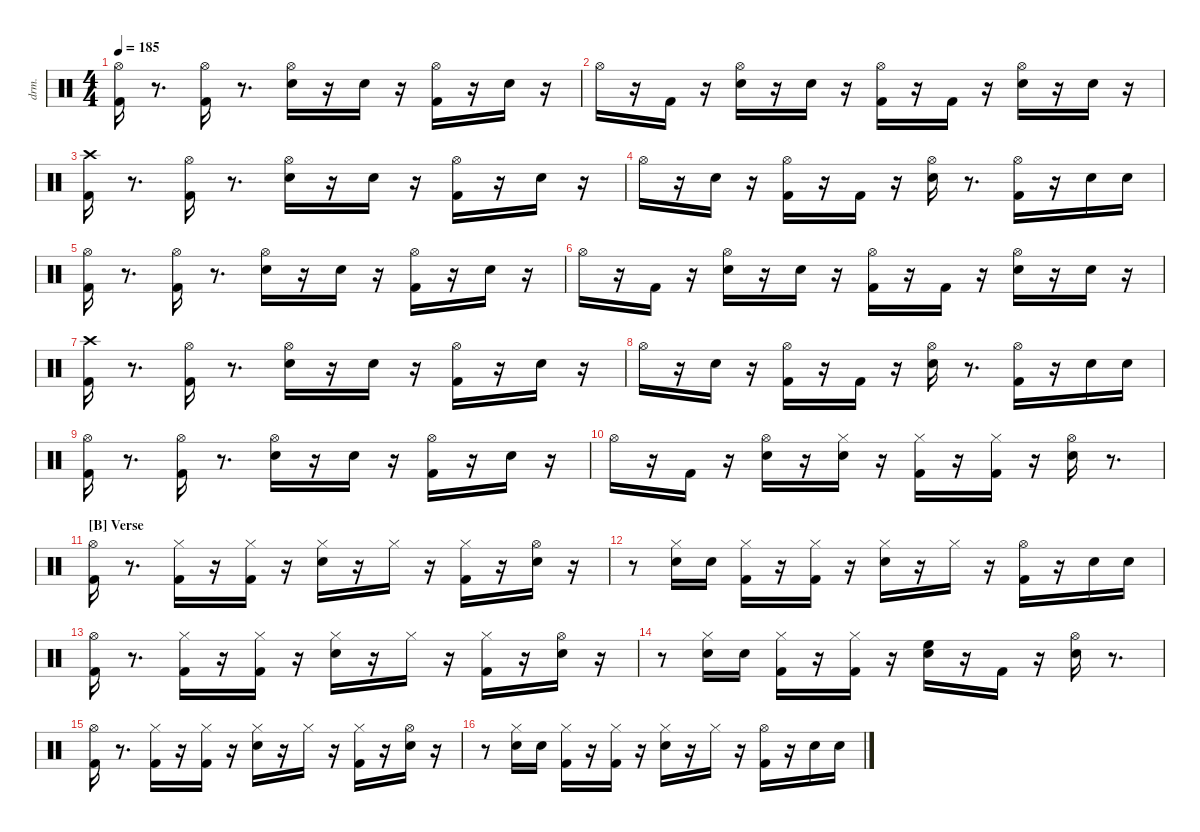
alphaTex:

\defaultSystemsLayout 4
\hideDynamics
\bracketExtendMode nobrackets
\otherSystemsTrackNameOrientation horizontal
\track ("drums" "drm.") {instrument percussion}
\staff {score}
\articulation defaults
\ts (4 4)
\tempo 185
\clef neutral
\ks aminor
("Kick (hit) 2" "Hi-Hat (open)"{acc #}).16{dy ff beam Down} r.8{d beam Down} ("Kick (hit) 2" "Hi-Hat (open)"{acc #}).16{dy mf beam Down} r.8{d beam Down} ("Snare (hit) 2" "Hi-Hat (open)"{acc #}).16{dy ff beam Down} r.16{beam Down} "Snare (hit) 2".16{dy p beam Down} r.16{beam Down} ("Kick (hit) 2" "Hi-Hat (open)"{acc #}).16{dy ff beam Down} r.16{beam Down} "Snare (hit) 2".16{dy f beam Down} r.16{beam Down} |
"Hi-Hat (open)"{acc #}.16{dy ff beam Down} r.16{beam Down} "Kick (hit) 2".16{beam Up} r.16{beam Up} ("Snare (hit) 2" "Hi-Hat (open)"{acc #}).16{beam Down} r.16{beam Down} "Snare (hit) 2".16{dy p beam Down} r.16{beam Down} ("Kick (hit) 2" "Hi-Hat (open)"{acc #}).16{dy mf beam Down} r.16{beam Down} "Kick (hit) 2".16{dy ff beam Up} r.16{beam Up} ("Snare (hit) 2" "Hi-Hat (open)"{acc #}).16{beam Down} r.16{beam Down} "Snare (hit) 2".16{beam Down} r.16{beam Down} |
("Kick (hit) 2" "Crash high (hit)"{acc #}).16{beam Down} r.8{d beam Down} ("Kick (hit) 2" "Hi-Hat (open)"{acc #}).16{beam Down} r.8{d beam Down} ("Snare (hit) 2" "Hi-Hat (open)"{acc #}).16{beam Down} r.16{beam Down} "Snare (hit) 2".16{dy p beam Down} r.16{beam Down} ("Kick (hit) 2" "Hi-Hat (open)"{acc #}).16{dy ff beam Down} r.16{beam Down} "Snare (hit) 2".16{beam Down} r.16{beam Down} |
"Hi-Hat (open)"{acc #}.16{dy f beam Down} r.16{beam Down} "Snare (hit) 2".16{dy ff beam Down} r.16{beam Down} ("Kick (hit) 2" "Hi-Hat (open)"{acc #}).16{dy mf beam Down} r.16{beam Down} "Kick (hit) 2".16{dy ff beam Up} r.16{beam Up} ("Snare (hit) 2" "Hi-Hat (open)"{acc #}).16{beam Down} r.8{d beam Down} ("Kick (hit) 2" "Hi-Hat (open)"{acc #}).16{beam Down} r.16{beam Down} "Snare (hit) 2".16{dy mf beam Down} "Snare (hit) 2".16{dy pp beam Down} |
("Kick (hit) 2" "Hi-Hat (open)"{acc #}).16{dy ff beam Down} r.8{d beam Down} ("Kick (hit) 2" "Hi-Hat (open)"{acc #}).16{beam Down} r.8{d beam Down} ("Snare (hit) 2" "Hi-Hat (open)"{acc #}).16{beam Down} r.16{beam Down} "Snare (hit) 2".16{dy p beam Down} r.16{beam Down} ("Kick (hit) 2" "Hi-Hat (open)"{acc #}).16{dy ff beam Down} r.16{beam Down} "Snare (hit) 2".16{dy f beam Down} r.16{beam Down} |
"Hi-Hat (open)"{acc #}.16{dy ff beam Down} r.16{beam Down} "Kick (hit) 2".16{beam Up} r.16{beam Up} ("Snare (hit) 2" "Hi-Hat (open)"{acc #}).16{beam Down} r.16{beam Down} "Snare (hit) 2".16{dy p beam Down} r.16{beam Down} ("Kick (hit) 2" "Hi-Hat (open)"{acc #}).16{dy mf beam Down} r.16{beam Down} "Kick (hit) 2".16{dy ff beam Up} r.16{beam Up} ("Snare (hit) 2" "Hi-Hat (open)"{acc #}).16{beam Down} r.16{beam Down} "Snare (hit) 2".16{beam Down} r.16{beam Down} |
("Kick (hit) 2" "Crash high (hit)"{acc #}).16{beam Down} r.8{d beam Down} ("Kick (hit) 2" "Hi-Hat (open)"{acc #}).16{beam Down} r.8{d beam Down} ("Snare (hit) 2" "Hi-Hat (open)"{acc #}).16{beam Down} r.16{beam Down} "Snare (hit) 2".16{dy p beam Down} r.16{beam Down} ("Kick (hit) 2" "Hi-Hat (open)"{acc #}).16{dy ff beam Down} r.16{beam Down} "Snare (hit) 2".16{beam Down} r.16{beam Down} |
"Hi-Hat (open)"{acc #}.16{dy f beam Down} r.16{beam Down} "Snare (hit) 2".16{dy ff beam Down} r.16{beam Down} ("Kick (hit) 2" "Hi-Hat (open)"{acc #}).16{dy f beam Down} r.16{beam Down} "Kick (hit) 2".16{dy ff beam Up} r.16{beam Up} ("Snare (hit) 2" "Hi-Hat (open)"{acc #}).16{beam Down} r.8{d beam Down} ("Kick (hit) 2" "Hi-Hat (open)"{acc #}).16{beam Down} r.16{beam Down} "Snare (hit) 2".16{dy mf beam Down} "Snare (hit) 2".16{dy pp beam Down} |
("Kick (hit) 2" "Hi-Hat (open)"{acc #}).16{dy fff beam Down} r.8{d beam Down} ("Kick (hit) 2" "Hi-Hat (open)"{acc #}).16{dy ff beam Down} r.8{d beam Down} ("Snare (hit) 2" "Hi-Hat (open)"{acc #}).16{beam Down} r.16{beam Down} "Snare (hit) 2".16{dy p beam Down} r.16{beam Down} ("Kick (hit) 2" "Hi-Hat (open)"{acc #}).16{dy f beam Down} r.16{beam Down} "Snare (hit) 2".16{beam Down} r.16{beam Down} |
"Hi-Hat (open)"{acc #}.16{dy ff beam Down} r.16{beam Down} "Kick (hit) 2".16{beam Up} r.16{beam Up} ("Snare (hit) 2" "Hi-Hat (open)"{acc #}).16{beam Down} r.16{beam Down} ("Snare (hit) 2" "Hi-Hat (closed)"{acc #}).16{dy p beam Down} r.16{beam Down} ("Kick (hit) 2" "Hi-Hat (closed)"{acc #}).16{dy mf beam Down} r.16{beam Down} ("Kick (hit) 2" "Hi-Hat (closed)"{acc #}).16{dy ff beam Down} r.16{beam Down} ("Snare (hit) 2" "Hi-Hat (open)"{acc #}).16{beam Down} r.8{d beam Down} |
\section ("B" "Verse")
("Kick (hit) 2" "Hi-Hat (open)"{acc #}).16{beam Down} r.8{d beam Down} ("Kick (hit) 2" "Hi-Hat (closed)"{acc #}).16{dy f beam Down} r.16{beam Down} ("Kick (hit) 2" "Hi-Hat (closed)"{acc #}).16{dy ff beam Down} r.16{beam Down} ("Snare (hit) 2" "Hi-Hat (closed)"{acc #}).16{beam Down} r.16{beam Down} "Hi-Hat (closed)"{acc #}.16{dy ppp beam Down} r.16{beam Down} ("Kick (hit) 2" "Hi-Hat (closed)"{acc #}).16{dy ff beam Down} r.16{beam Down} ("Snare (hit) 2" "Hi-Hat (open)"{acc #}).16{beam Down} r.16{beam Down} |
r.8{beam Down} ("Snare (hit) 2" "Hi-Hat (closed)"{acc #}).16{beam Down} "Snare (hit) 2".16{dy mf beam Down} ("Kick (hit) 2" "Hi-Hat (closed)"{acc #}).16{dy f beam Down} r.16{beam Down} ("Kick (hit) 2" "Hi-Hat (closed)"{acc #}).16{dy ppp beam Down} r.16{beam Down} ("Snare (hit) 2" "Hi-Hat (closed)"{acc #}).16{dy mf beam Down} r.16{beam Down} "Hi-Hat (closed)"{acc #}.16{dy pp beam Down} r.16{beam Down} ("Kick (hit) 2" "Hi-Hat (open)"{acc #}).16{dy ff beam Down} r.16{beam Down} "Snare (hit) 2".16{dy mf beam Down} "Snare (hit) 2".16{dy p beam Down} |
("Kick (hit) 2" "Hi-Hat (open)"{acc #}).16{dy ff beam Down} r.8{d beam Down} ("Kick (hit) 2" "Hi-Hat (closed)"{acc #}).16{dy f beam Down} r.16{beam Down} ("Kick (hit) 2" "Hi-Hat (closed)"{acc #}).16{dy ff beam Down} r.16{beam Down} ("Snare (hit) 2" "Hi-Hat (closed)"{acc #}).16{beam Down} r.16{beam Down} "Hi-Hat (closed)"{acc #}.16{dy ppp beam Down} r.16{beam Down} ("Kick (hit) 2" "Hi-Hat (closed)"{acc #}).16{dy ff beam Down} r.16{beam Down} ("Snare (hit) 2" "Hi-Hat (open)"{acc #}).16{beam Down} r.16{beam Down} |
r.8{beam Down} ("Snare (hit) 2" "Hi-Hat (closed)"{acc #}).16{beam Down} "Snare (hit) 2".16{dy mf beam Down} ("Kick (hit) 2" "Hi-Hat (closed)"{acc #}).16{dy f beam Down} r.16{beam Down} ("Kick (hit) 2" "Hi-Hat (closed)"{acc #}).16{dy ff beam Down} r.16{beam Down} ("Snare (hit) 2" "High Floor Tom (hit)").16{beam Down} r.16{beam Down} "Kick (hit) 2".16{beam Up} r.16{beam Up} ("Snare (hit) 2" "Hi-Hat (open)"{acc #}).16{dy fff beam Down} r.8{d beam Down} |
("Kick (hit) 2" "Hi-Hat (open)"{acc #}).16{dy ff beam Down} r.8{d beam Down} ("Kick (hit) 2" "Hi-Hat (closed)"{acc #}).16{dy f beam Down} r.16{beam Down} ("Kick (hit) 2" "Hi-Hat (closed)"{acc #}).16{dy ff beam Down} r.16{beam Down} ("Snare (hit) 2" "Hi-Hat (closed)"{acc #}).16{beam Down} r.16{beam Down} "Hi-Hat (closed)"{acc #}.16{dy ppp beam Down} r.16{beam Down} ("Kick (hit) 2" "Hi-Hat (closed)"{acc #}).16{dy ff beam Down} r.16{beam Down} ("Snare (hit) 2" "Hi-Hat (open)"{acc #}).16{beam Down} r.16{beam Down} |
r.8{beam Down} ("Snare (hit) 2" "Hi-Hat (closed)"{acc #}).16{beam Down} "Snare (hit) 2".16{dy mf beam Down} ("Kick (hit) 2" "Hi-Hat (closed)"{acc #}).16{dy f beam Down} r.16{beam Down} ("Kick (hit) 2" "Hi-Hat (closed)"{acc #}).16{dy ff beam Down} r.16{beam Down} ("Snare (hit) 2" "Hi-Hat (closed)"{acc #}).16{beam Down} r.16{beam Down} "Hi-Hat (closed)"{acc #}.16{dy pp beam Down} r.16{beam Down} ("Kick (hit) 2" "Hi-Hat (open)"{acc #}).16{dy ff beam Down} r.16{beam Down} "Snare (hit) 2".16{dy mf beam Down} "Snare (hit) 2".16{dy p beam Down}
